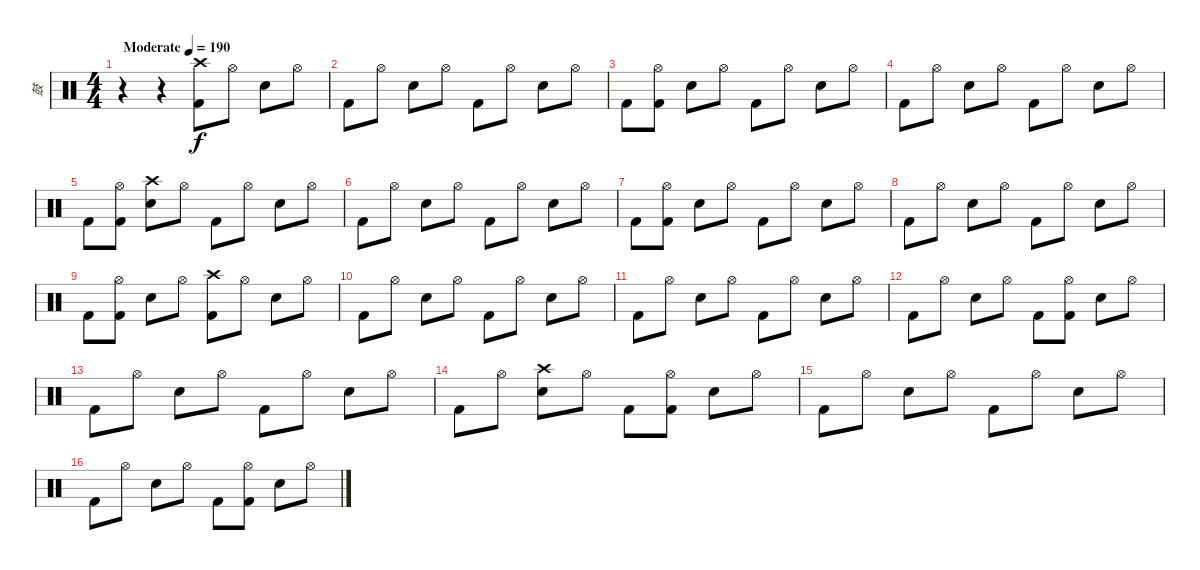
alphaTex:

\track ("鼓" "鼓") {instrument percussion}
\staff {score}
\articulation defaults
\ts (4 4)
\tempo (190 "Moderate")
\clef neutral
\ks c
r.4{dy f} r.4 ("Crash high (hit)" "Kick (hit) 2").8 "Hi-Hat (open)".8 "Snare (hit) 2".8 "Hi-Hat (open)".8 |
"Kick (hit) 2".8 "Hi-Hat (open)".8 "Snare (hit) 2".8 "Hi-Hat (open)".8 "Kick (hit) 2".8 "Hi-Hat (open)".8 "Snare (hit) 2".8 "Hi-Hat (open)".8 |
"Kick (hit) 2".8 ("Hi-Hat (open)" "Kick (hit) 2").8 "Snare (hit) 2".8 "Hi-Hat (open)".8 "Kick (hit) 2".8 "Hi-Hat (open)".8 "Snare (hit) 2".8 "Hi-Hat (open)".8 |
"Kick (hit) 2".8 "Hi-Hat (open)".8 "Snare (hit) 2".8 "Hi-Hat (open)".8 "Kick (hit) 2".8 "Hi-Hat (open)".8 "Snare (hit) 2".8 "Hi-Hat (open)".8 |
"Kick (hit) 2".8 ("Hi-Hat (open)" "Kick (hit) 2").8 ("Crash high (hit)" "Snare (hit) 2").8 "Hi-Hat (open)".8 "Kick (hit) 2".8 "Hi-Hat (open)".8 "Snare (hit) 2".8 "Hi-Hat (open)".8 |
"Kick (hit) 2".8 "Hi-Hat (open)".8 "Snare (hit) 2".8 "Hi-Hat (open)".8 "Kick (hit) 2".8 "Hi-Hat (open)".8 "Snare (hit) 2".8 "Hi-Hat (open)".8 |
"Kick (hit) 2".8 ("Hi-Hat (open)" "Kick (hit) 2").8 "Snare (hit) 2".8 "Hi-Hat (open)".8 "Kick (hit) 2".8 "Hi-Hat (open)".8 "Snare (hit) 2".8 "Hi-Hat (open)".8 |
"Kick (hit) 2".8 "Hi-Hat (open)".8 "Snare (hit) 2".8 "Hi-Hat (open)".8 "Kick (hit) 2".8 "Hi-Hat (open)".8 "Snare (hit) 2".8 "Hi-Hat (open)".8 |
"Kick (hit) 2".8 ("Hi-Hat (open)" "Kick (hit) 2").8 "Snare (hit) 2".8 "Hi-Hat (open)".8 ("Crash high (hit)" "Kick (hit) 2").8 "Hi-Hat (open)".8 "Snare (hit) 2".8 "Hi-Hat (open)".8 |
"Kick (hit) 2".8 "Hi-Hat (open)".8 "Snare (hit) 2".8 "Hi-Hat (open)".8 "Kick (hit) 2".8 "Hi-Hat (open)".8 "Snare (hit) 2".8 "Hi-Hat (open)".8 |
"Kick (hit) 2".8 "Hi-Hat (open)".8 "Snare (hit) 2".8 "Hi-Hat (open)".8 "Kick (hit) 2".8 "Hi-Hat (open)".8 "Snare (hit) 2".8 "Hi-Hat (open)".8 |
"Kick (hit) 2".8 "Hi-Hat (open)".8 "Snare (hit) 2".8 "Hi-Hat (open)".8 "Kick (hit) 2".8 ("Hi-Hat (open)" "Kick (hit) 2").8 "Snare (hit) 2".8 "Hi-Hat (open)".8 |
"Kick (hit) 2".8 "Hi-Hat (open)".8 "Snare (hit) 2".8 "Hi-Hat (open)".8 "Kick (hit) 2".8 "Hi-Hat (open)".8 "Snare (hit) 2".8 "Hi-Hat (open)".8 |
"Kick (hit) 2".8 "Hi-Hat (open)".8 ("Crash high (hit)" "Snare (hit) 2").8 "Hi-Hat (open)".8 "Kick (hit) 2".8 ("Hi-Hat (open)" "Kick (hit) 2").8 "Snare (hit) 2".8 "Hi-Hat (open)".8 |
"Kick (hit) 2".8 "Hi-Hat (open)".8 "Snare (hit) 2".8 "Hi-Hat (open)".8 "Kick (hit) 2".8 "Hi-Hat (open)".8 "Snare (hit) 2".8 "Hi-Hat (open)".8 |
"Kick (hit) 2".8 "Hi-Hat (open)".8 "Snare (hit) 2".8 "Hi-Hat (open)".8 "Kick (hit) 2".8 ("Hi-Hat (open)" "Kick (hit) 2").8 "Snare (hit) 2".8 "Hi-Hat (open)".8
